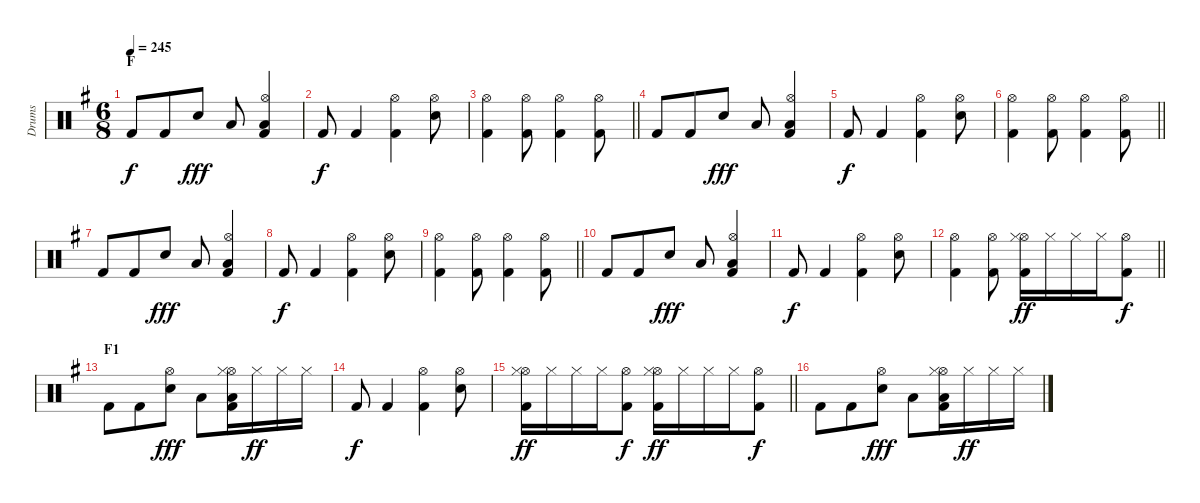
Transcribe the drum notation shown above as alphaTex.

\track ("Drums" "Drums") {instrument percussion}
\staff {score}
\articulation defaults
\ts (6 8)
\section ("" "F")
\tempo 245
\clef neutral
\ks eminor "Kick (hit) 2".8{dy f} "Kick (hit) 2".8 "Electric Snare (hit)".8{dy fff} "Low Tom (hit)".8
("Hi-Hat (open)" "Low Floor Tom (hit)" "Kick (hit) 2").4 |
"Kick (hit) 2".8{dy f} "Kick (hit) 2".4 ("Hi-Hat (open)" "Kick (hit) 2").4 ("Hi-Hat (open)" "Electric Snare (hit)").8 |
\barLineRight lightlight
("Hi-Hat (open)" "Kick (hit) 2").4 ("Hi-Hat (open)" "Kick (hit) 2").8 ("Hi-Hat (open)" "Kick (hit) 2").4 ("Hi-Hat (open)" "Kick (hit) 2").8 |
\section ("" "")
"Kick (hit) 2".8 "Kick (hit) 2".8 "Electric Snare (hit)".8{dy fff} "Low Tom (hit)".8 ("Hi-Hat (open)" "Low Floor Tom (hit)" "Kick (hit) 2").4 |
"Kick (hit) 2".8{dy f} "Kick (hit) 2".4 ("Hi-Hat (open)" "Kick (hit) 2").4 ("Hi-Hat (open)" "Electric Snare (hit)").8 |
\barLineRight lightlight
("Hi-Hat (open)" "Kick (hit) 2").4 ("Hi-Hat (open)" "Kick (hit) 2").8 ("Hi-Hat (open)" "Kick (hit) 2").4 ("Hi-Hat (open)" "Kick (hit) 2").8 |
\section ("" "")
"Kick (hit) 2".8 "Kick (hit) 2".8 "Electric Snare (hit)".8{dy fff} "Low Tom (hit)".8 ("Hi-Hat (open)" "Low Floor Tom (hit)" "Kick (hit) 2").4 |
"Kick (hit) 2".8{dy f} "Kick (hit) 2".4 ("Hi-Hat (open)" "Kick (hit) 2").4 ("Hi-Hat (open)" "Electric Snare (hit)").8 |
\barLineRight lightlight
("Hi-Hat (open)" "Kick (hit) 2").4 ("Hi-Hat (open)" "Kick (hit) 2").8 ("Hi-Hat (open)" "Kick (hit) 2").4 ("Hi-Hat (open)" "Kick (hit) 2").8 |
\section ("" "")
"Kick (hit) 2".8 "Kick (hit) 2".8 "Electric Snare (hit)".8{dy fff} "Low Tom (hit)".8 ("Hi-Hat (open)" "Low Floor Tom (hit)" "Kick (hit) 2").4 |
"Kick (hit) 2".8{dy f} "Kick (hit) 2".4 ("Hi-Hat (open)" "Kick (hit) 2").4 ("Hi-Hat (open)" "Electric Snare (hit)").8 |
\barLineRight lightlight
("Hi-Hat (open)" "Kick (hit) 2").4 ("Hi-Hat (open)" "Kick (hit) 2").8 ("Hi-Hat (open)" "Hi-Hat (closed)" "Kick (hit) 2").16{dy ff} "Hi-Hat (closed)".16 "Hi-Hat (closed)".16 "Hi-Hat (closed)".16 ("Hi-Hat (open)" "Kick (hit) 2").8{dy f} |
\section ("" "F1")
"Kick (hit) 2".8 "Kick (hit) 2".8 ("Hi-Hat (open)" "Electric Snare (hit)").8{dy fff} "Low Tom (hit)".8 ("Hi-Hat (open)" "Hi-Hat (closed)" "Low Floor Tom (hit)" "Kick (hit) 2").16 "Hi-Hat (closed)".16{dy ff} "Hi-Hat (closed)".16 "Hi-Hat (closed)".16 |
"Kick (hit) 2".8{dy f} "Kick (hit) 2".4 ("Hi-Hat (open)" "Kick (hit) 2").4 ("Hi-Hat (open)" "Electric Snare (hit)").8 |
\barLineRight lightlight
("Hi-Hat (open)" "Hi-Hat (closed)" "Kick (hit) 2").16{dy ff} "Hi-Hat (closed)".16 "Hi-Hat (closed)".16 "Hi-Hat (closed)".16 ("Hi-Hat (open)" "Kick (hit) 2").8{dy f} ("Hi-Hat (open)" "Hi-Hat (closed)" "Kick (hit) 2").16{dy ff} "Hi-Hat (closed)".16 "Hi-Hat (closed)".16 "Hi-Hat (closed)".16 ("Hi-Hat (open)" "Kick (hit) 2").8{dy f} |
\section ("" "")
"Kick (hit) 2".8 "Kick (hit) 2".8 ("Hi-Hat (open)" "Electric Snare (hit)").8{dy fff} "Low Tom (hit)".8 ("Hi-Hat (open)" "Hi-Hat (closed)" "Low Floor Tom (hit)" "Kick (hit) 2").16 "Hi-Hat (closed)".16{dy ff} "Hi-Hat (closed)".16 "Hi-Hat (closed)".16
